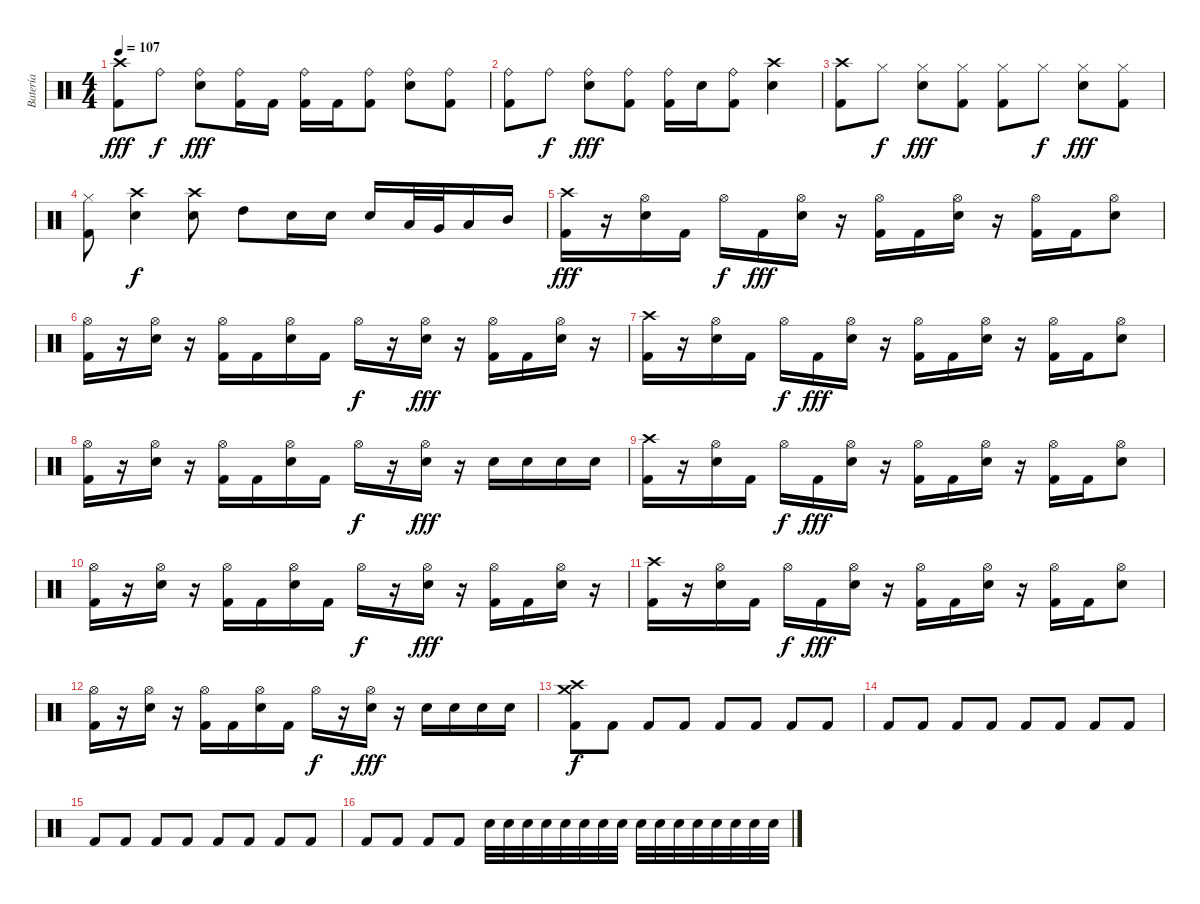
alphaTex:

\track ("Batería" "Batería") {instrument percussion}
\staff {score}
\articulation defaults
\ts (4 4)
\tempo 107
\clef neutral
\ks c
("Crash high (hit)" "Kick (hit) 2").8{dy fff} "Ride (bell)".8{dy f} ("Ride (bell)" "Electric Snare (hit)").8{dy fff} ("Ride (bell)" "Kick (hit) 2").16 "Kick (hit) 2".16 ("Ride (bell)" "Kick (hit) 2").16 "Kick (hit) 2".16 ("Ride (bell)" "Kick (hit) 2").8 ("Ride (bell)" "Electric Snare (hit)").8 ("Ride (bell)" "Kick (hit) 2").8 |
("Ride (bell)" "Kick (hit) 2").8 "Ride (bell)".8{dy f} ("Ride (bell)" "Electric Snare (hit)").8{dy fff} ("Ride (bell)" "Kick (hit) 2").8 ("Ride (bell)" "Kick (hit) 2").16 "Electric Snare (hit)".16 ("Ride (bell)" "Kick (hit) 2").8 ("Crash high (hit)" "Electric Snare (hit)").4 |
("Crash high (hit)" "Kick (hit) 2").8 "Hi-Hat (closed)".8{dy f} ("Hi-Hat (closed)" "Electric Snare (hit)").8{dy fff} ("Hi-Hat (closed)" "Kick (hit) 2").8 ("Hi-Hat (closed)" "Kick (hit) 2").8 "Hi-Hat (closed)".8{dy f} ("Hi-Hat (closed)" "Electric Snare (hit)").8{dy fff} ("Hi-Hat (closed)" "Kick (hit) 2").8 |
("Hi-Hat (closed)" "Kick (hit) 2").8 ("Crash high (hit)" "Electric Snare (hit)").4{dy f} ("Crash high (hit)" "Electric Snare (hit)").8 "High Tom (hit)".8 "Electric Snare (hit)".16 "Electric Snare (hit)".16 "Electric Snare (hit)".16 "Low Floor Tom (hit)".32 "Very Low Tom (hit)".32 "Low Tom (hit)".16 "Mid Tom (hit)".16 |
("Crash high (hit)" "Kick (hit) 2").16{dy fff} r.16 ("Hi-Hat (open)" "Electric Snare (hit)").16 "Kick (hit) 2".16 "Hi-Hat (open)".16{dy f} "Kick (hit) 2".16{dy fff} ("Hi-Hat (open)" "Electric Snare (hit)").16 r.16 ("Hi-Hat (open)" "Kick (hit) 2").16 "Kick (hit) 2".16 ("Hi-Hat (open)" "Electric Snare (hit)").16 r.16 ("Hi-Hat (open)" "Kick (hit) 2").16 "Kick (hit) 2".16 ("Hi-Hat (open)" "Electric Snare (hit)").8 |
("Hi-Hat (open)" "Kick (hit) 2").16 r.16 ("Hi-Hat (open)" "Electric Snare (hit)").16 r.16 ("Hi-Hat (open)" "Kick (hit) 2").16 "Kick (hit) 2".16 ("Hi-Hat (open)" "Electric Snare (hit)").16 "Kick (hit) 2".16 "Hi-Hat (open)".16{dy f} r.16 ("Hi-Hat (open)" "Electric Snare (hit)").16{dy fff} r.16 ("Hi-Hat (open)" "Kick (hit) 2").16 "Kick (hit) 2".16 ("Hi-Hat (open)" "Electric Snare (hit)").16 r.16 |
("Crash high (hit)" "Kick (hit) 2").16 r.16 ("Hi-Hat (open)" "Electric Snare (hit)").16 "Kick (hit) 2".16 "Hi-Hat (open)".16{dy f} "Kick (hit) 2".16{dy fff} ("Hi-Hat (open)" "Electric Snare (hit)").16 r.16 ("Hi-Hat (open)" "Kick (hit) 2").16 "Kick (hit) 2".16 ("Hi-Hat (open)" "Electric Snare (hit)").16 r.16 ("Hi-Hat (open)" "Kick (hit) 2").16 "Kick (hit) 2".16 ("Hi-Hat (open)" "Electric Snare (hit)").8 |
("Hi-Hat (open)" "Kick (hit) 2").16 r.16 ("Hi-Hat (open)" "Electric Snare (hit)").16 r.16 ("Hi-Hat (open)" "Kick (hit) 2").16 "Kick (hit) 2".16 ("Hi-Hat (open)" "Electric Snare (hit)").16 "Kick (hit) 2".16 "Hi-Hat (open)".16{dy f} r.16 ("Hi-Hat (open)" "Electric Snare (hit)").16{dy fff} r.16 "Electric Snare (hit)".16 "Electric Snare (hit)".16 "Electric Snare (hit)".16 "Electric Snare (hit)".16 |
("Crash high (hit)" "Kick (hit) 2").16 r.16 ("Hi-Hat (open)" "Electric Snare (hit)").16 "Kick (hit) 2".16 "Hi-Hat (open)".16{dy f} "Kick (hit) 2".16{dy fff} ("Hi-Hat (open)" "Electric Snare (hit)").16 r.16 ("Hi-Hat (open)" "Kick (hit) 2").16 "Kick (hit) 2".16 ("Hi-Hat (open)" "Electric Snare (hit)").16 r.16 ("Hi-Hat (open)" "Kick (hit) 2").16 "Kick (hit) 2".16 ("Hi-Hat (open)" "Electric Snare (hit)").8 |
("Hi-Hat (open)" "Kick (hit) 2").16 r.16 ("Hi-Hat (open)" "Electric Snare (hit)").16 r.16 ("Hi-Hat (open)" "Kick (hit) 2").16 "Kick (hit) 2".16 ("Hi-Hat (open)" "Electric Snare (hit)").16 "Kick (hit) 2".16 "Hi-Hat (open)".16{dy f} r.16 ("Hi-Hat (open)" "Electric Snare (hit)").16{dy fff} r.16 ("Hi-Hat (open)" "Kick (hit) 2").16 "Kick (hit) 2".16 ("Hi-Hat (open)" "Electric Snare (hit)").16 r.16 |
("Crash high (hit)" "Kick (hit) 2").16 r.16 ("Hi-Hat (open)" "Electric Snare (hit)").16 "Kick (hit) 2".16 "Hi-Hat (open)".16{dy f} "Kick (hit) 2".16{dy fff} ("Hi-Hat (open)" "Electric Snare (hit)").16 r.16 ("Hi-Hat (open)" "Kick (hit) 2").16 "Kick (hit) 2".16 ("Hi-Hat (open)" "Electric Snare (hit)").16 r.16 ("Hi-Hat (open)" "Kick (hit) 2").16 "Kick (hit) 2".16 ("Hi-Hat (open)" "Electric Snare (hit)").8 |
("Hi-Hat (open)" "Kick (hit) 2").16 r.16 ("Hi-Hat (open)" "Electric Snare (hit)").16 r.16 ("Hi-Hat (open)" "Kick (hit) 2").16 "Kick (hit) 2".16 ("Hi-Hat (open)" "Electric Snare (hit)").16 "Kick (hit) 2".16 "Hi-Hat (open)".16{dy f} r.16 ("Hi-Hat (open)" "Electric Snare (hit)").16{dy fff} r.16 "Electric Snare (hit)".16 "Electric Snare (hit)".16 "Electric Snare (hit)".16 "Electric Snare (hit)".16 |
("Kick (hit) 2" "Crash high (hit)" "Crash medium (hit)").8{dy f} "Kick (hit) 2".8 "Kick (hit) 2".8 "Kick (hit) 2".8 "Kick (hit) 2".8 "Kick (hit) 2".8 "Kick (hit) 2".8 "Kick (hit) 2".8 |
"Kick (hit) 2".8 "Kick (hit) 2".8 "Kick (hit) 2".8 "Kick (hit) 2".8 "Kick (hit) 2".8 "Kick (hit) 2".8 "Kick (hit) 2".8 "Kick (hit) 2".8 |
"Kick (hit) 2".8 "Kick (hit) 2".8 "Kick (hit) 2".8 "Kick (hit) 2".8 "Kick (hit) 2".8 "Kick (hit) 2".8 "Kick (hit) 2".8 "Kick (hit) 2".8 |
"Kick (hit) 2".8 "Kick (hit) 2".8 "Kick (hit) 2".8 "Kick (hit) 2".8 "Electric Snare (hit)".32 "Electric Snare (hit)".32 "Electric Snare (hit)".32 "Electric Snare (hit)".32 "Electric Snare (hit)".32 "Electric Snare (hit)".32 "Electric Snare (hit)".32 "Electric Snare (hit)".32 "Electric Snare (hit)".32 "Electric Snare (hit)".32 "Electric Snare (hit)".32 "Electric Snare (hit)".32 "Electric Snare (hit)".32 "Electric Snare (hit)".32 "Electric Snare (hit)".32 "Electric Snare (hit)".32
